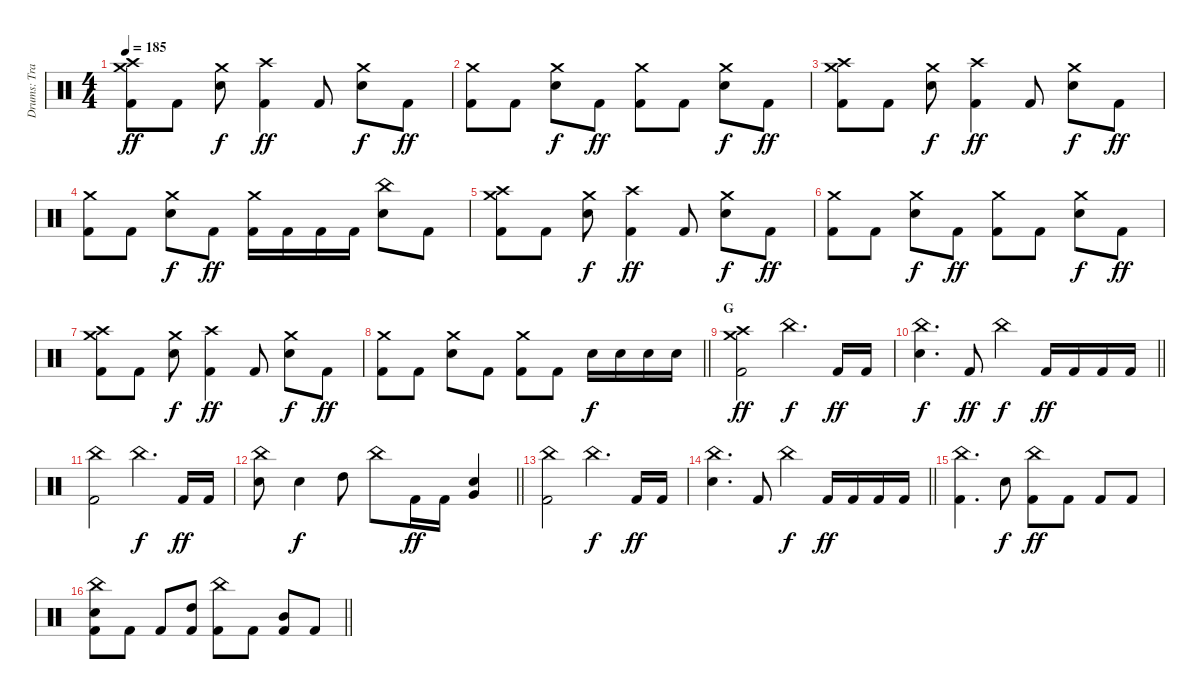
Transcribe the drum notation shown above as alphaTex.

\track ("Drums: Travis Clarke" "Drums: Tra") {instrument percussion}
\staff {score}
\articulation defaults
\ts (4 4)
\tempo 185
\clef neutral
\ks c
("Kick (hit) 2" "Crash high (hit)" "Crash medium (hit)").8{dy ff} "Kick (hit) 2".8 ("Snare (hit) 2" "Crash medium (hit)").8{dy f} ("Kick (hit) 2" "Crash high (hit)").4{dy ff} "Kick (hit) 2".8 ("Snare (hit) 2" "Crash medium (hit)").8{dy f} "Kick (hit) 2".8{dy ff} |
("Kick (hit) 2" "Crash medium (hit)").8 "Kick (hit) 2".8 ("Snare (hit) 2" "Crash medium (hit)").8{dy f} "Kick (hit) 2".8{dy ff} ("Kick (hit) 2" "Crash medium (hit)").8 "Kick (hit) 2".8 ("Snare (hit) 2" "Crash medium (hit)").8{dy f} "Kick (hit) 2".8{dy ff} |
("Kick (hit) 2" "Crash high (hit)" "Crash medium (hit)").8 "Kick (hit) 2".8 ("Snare (hit) 2" "Crash medium (hit)").8{dy f} ("Kick (hit) 2" "Crash high (hit)").4{dy ff} "Kick (hit) 2".8 ("Snare (hit) 2" "Crash medium (hit)").8{dy f} "Kick (hit) 2".8{dy ff} |
("Kick (hit) 2" "Crash medium (hit)").8 "Kick (hit) 2".8 ("Snare (hit) 2" "Crash medium (hit)").8{dy f} "Kick (hit) 2".8{dy ff} ("Kick (hit) 2" "Crash medium (hit)").16 "Kick (hit) 2".16 "Kick (hit) 2".16 "Kick (hit) 2".16 ("Snare (hit) 2" "China (hit)").8 "Kick (hit) 2".8 |
("Kick (hit) 2" "Crash high (hit)" "Crash medium (hit)").8 "Kick (hit) 2".8 ("Snare (hit) 2" "Crash medium (hit)").8{dy f} ("Kick (hit) 2" "Crash high (hit)").4{dy ff} "Kick (hit) 2".8 ("Snare (hit) 2" "Crash medium (hit)").8{dy f} "Kick (hit) 2".8{dy ff} |
("Kick (hit) 2" "Crash medium (hit)").8 "Kick (hit) 2".8 ("Snare (hit) 2" "Crash medium (hit)").8{dy f} "Kick (hit) 2".8{dy ff} ("Kick (hit) 2" "Crash medium (hit)").8 "Kick (hit) 2".8 ("Snare (hit) 2" "Crash medium (hit)").8{dy f} "Kick (hit) 2".8{dy ff} |
("Kick (hit) 2" "Crash high (hit)" "Crash medium (hit)").8 "Kick (hit) 2".8 ("Snare (hit) 2" "Crash medium (hit)").8{dy f} ("Kick (hit) 2" "Crash high (hit)").4{dy ff} "Kick (hit) 2".8 ("Snare (hit) 2" "Crash medium (hit)").8{dy f} "Kick (hit) 2".8{dy ff} |
\barLineRight lightlight
("Kick (hit) 2" "Crash medium (hit)").8 "Kick (hit) 2".8 ("Snare (hit) 2" "Crash medium (hit)").8 "Kick (hit) 2".8 ("Kick (hit) 2" "Crash medium (hit)").8 "Kick (hit) 2".8 "Snare (hit) 2".16{dy f} "Snare (hit) 2".16 "Snare (hit) 2".16 "Snare (hit) 2".16 |
\section ("" "G")
("Kick (hit) 2" "Crash high (hit)" "Crash medium (hit)").2{dy ff} "China (hit)".4{d dy f} "Kick (hit) 2".16{dy ff} "Kick (hit) 2".16 |
\barLineRight lightlight
("Snare (hit) 2" "China (hit)").4{d dy f} "Kick (hit) 2".8{dy ff} "China (hit)".4{dy f} "Kick (hit) 2".16{dy ff} "Kick (hit) 2".16 "Kick (hit) 2".16 "Kick (hit) 2".16 |
("Kick (hit) 2" "China (hit)").2 "China (hit)".4{d dy f} "Kick (hit) 2".16{dy ff} "Kick (hit) 2".16 |
\barLineRight lightlight
("Snare (hit) 2" "China (hit)").8 "Snare (hit) 2".4{dy f} "High Tom (hit)".8 "China (hit)".8 "Kick (hit) 2".16{dy ff} "Kick (hit) 2".16 ("Snare (hit) 2" "Very Low Tom (hit)").4 |
("Kick (hit) 2" "China (hit)").2 "China (hit)".4{d dy f} "Kick (hit) 2".16{dy ff} "Kick (hit) 2".16 |
\barLineRight lightlight
("Snare (hit) 2" "China (hit)").4{d} "Kick (hit) 2".8 "China (hit)".4{dy f} "Kick (hit) 2".16{dy ff} "Kick (hit) 2".16 "Kick (hit) 2".16 "Kick (hit) 2".16 |
("Kick (hit) 2" "China (hit)").4{d} "Snare (hit) 2".8{dy f} ("Kick (hit) 2" "China (hit)").8{dy ff} "Kick (hit) 2".8 "Kick (hit) 2".8 "Kick (hit) 2".8 |
\barLineRight lightlight
("Kick (hit) 2" "Snare (hit) 2" "China (hit)").8 "Kick (hit) 2".8 "Kick (hit) 2".8 ("Kick (hit) 2" "High Tom (hit)").8 ("Kick (hit) 2" "China (hit)").8 "Kick (hit) 2".8 ("Kick (hit) 2" "Mid Tom (hit)").8 "Kick (hit) 2".8
